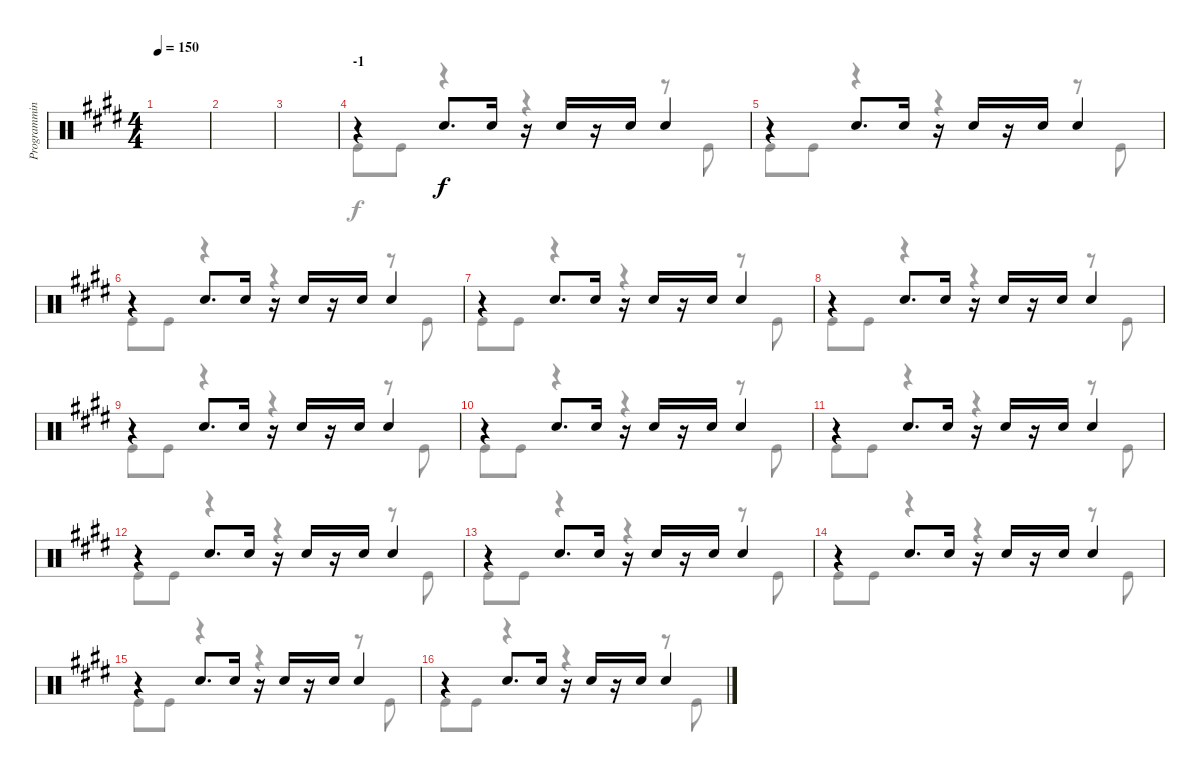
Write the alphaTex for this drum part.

\track ("Programming" "Programmin") {instrument percussion}
\staff {score}
\articulation defaults
\voice
\ts (4 4)
\tempo 150
\clef neutral
\ks e
|
|
|
\section ("" "-1")
r.4 "Snare (hit) 2".8{d} "Snare (hit) 2".16 r.16 "Snare (hit) 2".16 r.16 "Snare (hit) 2".16 "Snare (hit) 2".4 |
r.4 "Snare (hit) 2".8{d} "Snare (hit) 2".16 r.16 "Snare (hit) 2".16 r.16 "Snare (hit) 2".16 "Snare (hit) 2".4 |
r.4 "Snare (hit) 2".8{d} "Snare (hit) 2".16 r.16 "Snare (hit) 2".16 r.16 "Snare (hit) 2".16 "Snare (hit) 2".4 |
r.4 "Snare (hit) 2".8{d} "Snare (hit) 2".16 r.16 "Snare (hit) 2".16 r.16 "Snare (hit) 2".16 "Snare (hit) 2".4 |
r.4 "Snare (hit) 2".8{d} "Snare (hit) 2".16 r.16 "Snare (hit) 2".16 r.16 "Snare (hit) 2".16 "Snare (hit) 2".4 |
r.4 "Snare (hit) 2".8{d} "Snare (hit) 2".16 r.16 "Snare (hit) 2".16 r.16 "Snare (hit) 2".16 "Snare (hit) 2".4 |
r.4 "Snare (hit) 2".8{d} "Snare (hit) 2".16 r.16 "Snare (hit) 2".16 r.16 "Snare (hit) 2".16 "Snare (hit) 2".4 |
r.4 "Snare (hit) 2".8{d} "Snare (hit) 2".16 r.16 "Snare (hit) 2".16 r.16 "Snare (hit) 2".16 "Snare (hit) 2".4 |
r.4 "Snare (hit) 2".8{d} "Snare (hit) 2".16 r.16 "Snare (hit) 2".16 r.16 "Snare (hit) 2".16 "Snare (hit) 2".4 |
r.4 "Snare (hit) 2".8{d} "Snare (hit) 2".16 r.16 "Snare (hit) 2".16 r.16 "Snare (hit) 2".16 "Snare (hit) 2".4 |
r.4 "Snare (hit) 2".8{d} "Snare (hit) 2".16 r.16 "Snare (hit) 2".16 r.16 "Snare (hit) 2".16 "Snare (hit) 2".4 |
r.4 "Snare (hit) 2".8{d} "Snare (hit) 2".16 r.16 "Snare (hit) 2".16 r.16 "Snare (hit) 2".16 "Snare (hit) 2".4 |
r.4 "Snare (hit) 2".8{d} "Snare (hit) 2".16 r.16 "Snare (hit) 2".16 r.16 "Snare (hit) 2".16 "Snare (hit) 2".4
\voice
\clef neutral
\ottava regular
\simile none
\ks e
|
|
|
"Kick (hit)".8 "Kick (hit)".8 r.4 r.4 r.8 "Kick (hit)".8 |
"Kick (hit)".8 "Kick (hit)".8 r.4 r.4 r.8 "Kick (hit)".8 |
"Kick (hit)".8 "Kick (hit)".8 r.4 r.4 r.8 "Kick (hit)".8 |
"Kick (hit)".8 "Kick (hit)".8 r.4 r.4 r.8 "Kick (hit)".8 |
"Kick (hit)".8 "Kick (hit)".8 r.4 r.4 r.8 "Kick (hit)".8 |
"Kick (hit)".8 "Kick (hit)".8 r.4 r.4 r.8 "Kick (hit)".8 |
"Kick (hit)".8 "Kick (hit)".8 r.4 r.4 r.8 "Kick (hit)".8 |
"Kick (hit)".8 "Kick (hit)".8 r.4 r.4 r.8 "Kick (hit)".8 |
"Kick (hit)".8 "Kick (hit)".8 r.4 r.4 r.8 "Kick (hit)".8 |
"Kick (hit)".8 "Kick (hit)".8 r.4 r.4 r.8 "Kick (hit)".8 |
"Kick (hit)".8 "Kick (hit)".8 r.4 r.4 r.8 "Kick (hit)".8 |
"Kick (hit)".8 "Kick (hit)".8 r.4 r.4 r.8 "Kick (hit)".8 |
"Kick (hit)".8 "Kick (hit)".8 r.4 r.4 r.8 "Kick (hit)".8
